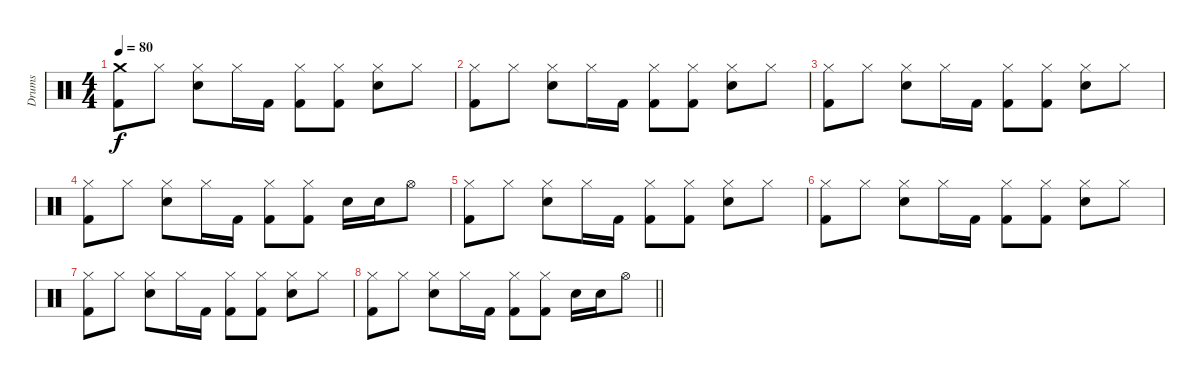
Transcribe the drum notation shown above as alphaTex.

\track ("Drums" "Drums") {instrument percussion}
\staff {score}
\articulation defaults
\ts (4 4)
\section ("" "")
\tempo 80
\clef neutral
\ks c
("Crash medium (hit)" "Kick (hit) 2").8{dy f} "Hi-Hat (closed)".8 ("Hi-Hat (closed)" "Electric Snare (hit)").8 "Hi-Hat (closed)".16 "Kick (hit) 2".16 ("Hi-Hat (closed)" "Kick (hit) 2").8 ("Hi-Hat (closed)" "Kick (hit) 2").8 ("Hi-Hat (closed)" "Electric Snare (hit)").8 "Hi-Hat (closed)".8 |
("Hi-Hat (closed)" "Kick (hit) 2").8 "Hi-Hat (closed)".8 ("Hi-Hat (closed)" "Electric Snare (hit)").8 "Hi-Hat (closed)".16 "Kick (hit) 2".16 ("Hi-Hat (closed)" "Kick (hit) 2").8 ("Hi-Hat (closed)" "Kick (hit) 2").8 ("Hi-Hat (closed)" "Electric Snare (hit)").8 "Hi-Hat (closed)".8 |
("Hi-Hat (closed)" "Kick (hit) 2").8 "Hi-Hat (closed)".8 ("Hi-Hat (closed)" "Electric Snare (hit)").8 "Hi-Hat (closed)".16 "Kick (hit) 2".16 ("Hi-Hat (closed)" "Kick (hit) 2").8 ("Hi-Hat (closed)" "Kick (hit) 2").8 ("Hi-Hat (closed)" "Electric Snare (hit)").8 "Hi-Hat (closed)".8 |
("Hi-Hat (closed)" "Kick (hit) 2").8 "Hi-Hat (closed)".8 ("Hi-Hat (closed)" "Electric Snare (hit)").8 "Hi-Hat (closed)".16 "Kick (hit) 2".16 ("Hi-Hat (closed)" "Kick (hit) 2").8 ("Hi-Hat (closed)" "Kick (hit) 2").8 "Electric Snare (hit)".16 "Electric Snare (hit)".16 "Hi-Hat (open)".8 |
("Hi-Hat (closed)" "Kick (hit) 2").8 "Hi-Hat (closed)".8 ("Hi-Hat (closed)" "Electric Snare (hit)").8 "Hi-Hat (closed)".16 "Kick (hit) 2".16 ("Hi-Hat (closed)" "Kick (hit) 2").8 ("Hi-Hat (closed)" "Kick (hit) 2").8 ("Hi-Hat (closed)" "Electric Snare (hit)").8 "Hi-Hat (closed)".8 |
("Hi-Hat (closed)" "Kick (hit) 2").8 "Hi-Hat (closed)".8 ("Hi-Hat (closed)" "Electric Snare (hit)").8 "Hi-Hat (closed)".16 "Kick (hit) 2".16 ("Hi-Hat (closed)" "Kick (hit) 2").8 ("Hi-Hat (closed)" "Kick (hit) 2").8 ("Hi-Hat (closed)" "Electric Snare (hit)").8 "Hi-Hat (closed)".8 |
("Hi-Hat (closed)" "Kick (hit) 2").8 "Hi-Hat (closed)".8 ("Hi-Hat (closed)" "Electric Snare (hit)").8 "Hi-Hat (closed)".16 "Kick (hit) 2".16 ("Hi-Hat (closed)" "Kick (hit) 2").8 ("Hi-Hat (closed)" "Kick (hit) 2").8 ("Hi-Hat (closed)" "Electric Snare (hit)").8 "Hi-Hat (closed)".8 |
\barLineRight lightlight
("Hi-Hat (closed)" "Kick (hit) 2").8 "Hi-Hat (closed)".8 ("Hi-Hat (closed)" "Electric Snare (hit)").8 "Hi-Hat (closed)".16 "Kick (hit) 2".16 ("Hi-Hat (closed)" "Kick (hit) 2").8 ("Hi-Hat (closed)" "Kick (hit) 2").8 "Electric Snare (hit)".16 "Electric Snare (hit)".16 "Hi-Hat (open)".8
